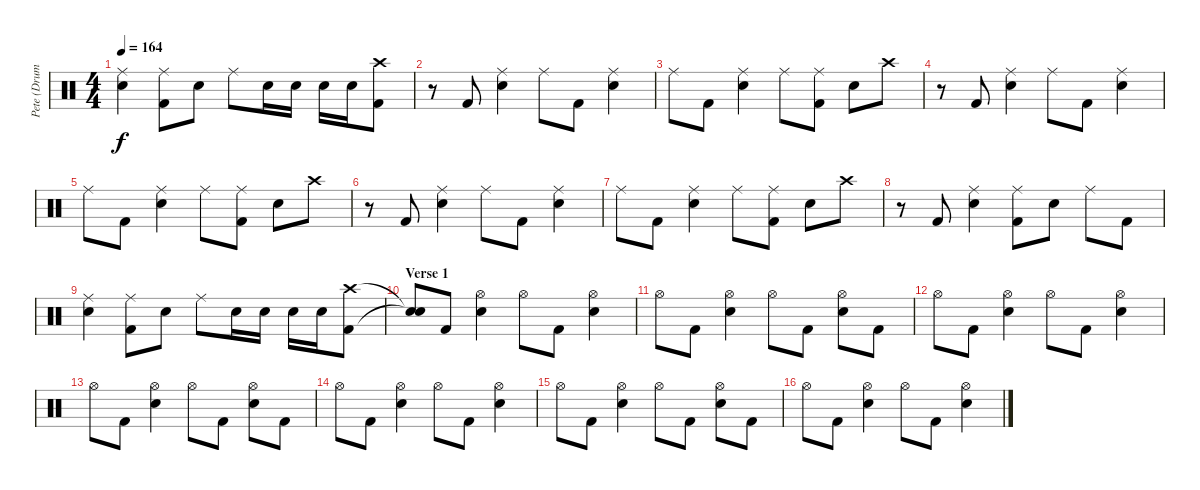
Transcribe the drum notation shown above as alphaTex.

\track ("Pete (Drums)" "Pete (Drum") {instrument percussion}
\staff {score}
\articulation defaults
\ts (4 4)
\tempo 164
\clef neutral
\ks c
("Ride (middle)" "Snare (hit) 2").4{dy f} ("Ride (middle)" "Kick (hit) 2").8 "Snare (hit) 2".8 "Ride (middle)".8 "Snare (hit) 2".16 "Snare (hit) 2".16 "Snare (hit) 2".16 "Snare (hit) 2".16 ("Crash high (hit)" "Kick (hit) 2").8 |
r.8 "Kick (hit) 2".8 ("Ride (middle)" "Snare (hit) 2").4 "Ride (middle)".8 "Kick (hit) 2".8 ("Ride (middle)" "Snare (hit) 2").4 |
"Ride (middle)".8 "Kick (hit) 2".8 ("Ride (middle)" "Snare (hit) 2").4 "Ride (middle)".8 ("Ride (middle)" "Kick (hit) 2").8 "Snare (hit) 2".8 "Crash high (hit)".8 |
r.8 "Kick (hit) 2".8 ("Ride (middle)" "Snare (hit) 2").4 "Ride (middle)".8 "Kick (hit) 2".8 ("Ride (middle)" "Snare (hit) 2").4 |
"Ride (middle)".8 "Kick (hit) 2".8 ("Ride (middle)" "Snare (hit) 2").4 "Ride (middle)".8 ("Ride (middle)" "Kick (hit) 2").8 "Snare (hit) 2".8 "Crash high (hit)".8 |
r.8 "Kick (hit) 2".8 ("Ride (middle)" "Snare (hit) 2").4 "Ride (middle)".8 "Kick (hit) 2".8 ("Ride (middle)" "Snare (hit) 2").4 |
"Ride (middle)".8 "Kick (hit) 2".8 ("Ride (middle)" "Snare (hit) 2").4 "Ride (middle)".8 ("Ride (middle)" "Kick (hit) 2").8 "Snare (hit) 2".8 "Crash high (hit)".8 |
r.8 "Kick (hit) 2".8 ("Ride (middle)" "Snare (hit) 2").4 ("Ride (middle)" "Kick (hit) 2").8 "Snare (hit) 2".8 "Ride (middle)".8 "Kick (hit) 2".8 |
("Ride (middle)" "Snare (hit) 2").4 ("Ride (middle)" "Kick (hit) 2").8 "Snare (hit) 2".8 "Ride (middle)".8 "Snare (hit) 2".16 "Snare (hit) 2".16 "Snare (hit) 2".16 "Snare (hit) 2".16 ("Crash high (hit)" "Kick (hit) 2").8 |
\section ("" "Verse 1")
("Snare (hit)"{t} "Snare (hit)"{t}).8 "Kick (hit) 2".8 ("Hi-Hat (open)" "Snare (hit) 2").4 "Hi-Hat (open)".8 "Kick (hit) 2".8 ("Hi-Hat (open)" "Snare (hit) 2").4 |
"Hi-Hat (open)".8 "Kick (hit) 2".8 ("Hi-Hat (open)" "Snare (hit) 2").4 "Hi-Hat (open)".8 "Kick (hit) 2".8 ("Hi-Hat (open)" "Snare (hit) 2").8 "Kick (hit) 2".8 |
"Hi-Hat (open)".8 "Kick (hit) 2".8 ("Hi-Hat (open)" "Snare (hit) 2").4 "Hi-Hat (open)".8 "Kick (hit) 2".8 ("Hi-Hat (open)" "Snare (hit) 2").4 |
"Hi-Hat (open)".8 "Kick (hit) 2".8 ("Hi-Hat (open)" "Snare (hit) 2").4 "Hi-Hat (open)".8 "Kick (hit) 2".8 ("Hi-Hat (open)" "Snare (hit) 2").8 "Kick (hit) 2".8 |
"Hi-Hat (open)".8 "Kick (hit) 2".8 ("Hi-Hat (open)" "Snare (hit) 2").4 "Hi-Hat (open)".8 "Kick (hit) 2".8 ("Hi-Hat (open)" "Snare (hit) 2").4 |
"Hi-Hat (open)".8 "Kick (hit) 2".8 ("Hi-Hat (open)" "Snare (hit) 2").4 "Hi-Hat (open)".8 "Kick (hit) 2".8 ("Hi-Hat (open)" "Snare (hit) 2").8 "Kick (hit) 2".8 |
"Hi-Hat (open)".8 "Kick (hit) 2".8 ("Hi-Hat (open)" "Snare (hit) 2").4 "Hi-Hat (open)".8 "Kick (hit) 2".8 ("Hi-Hat (open)" "Snare (hit) 2").4
